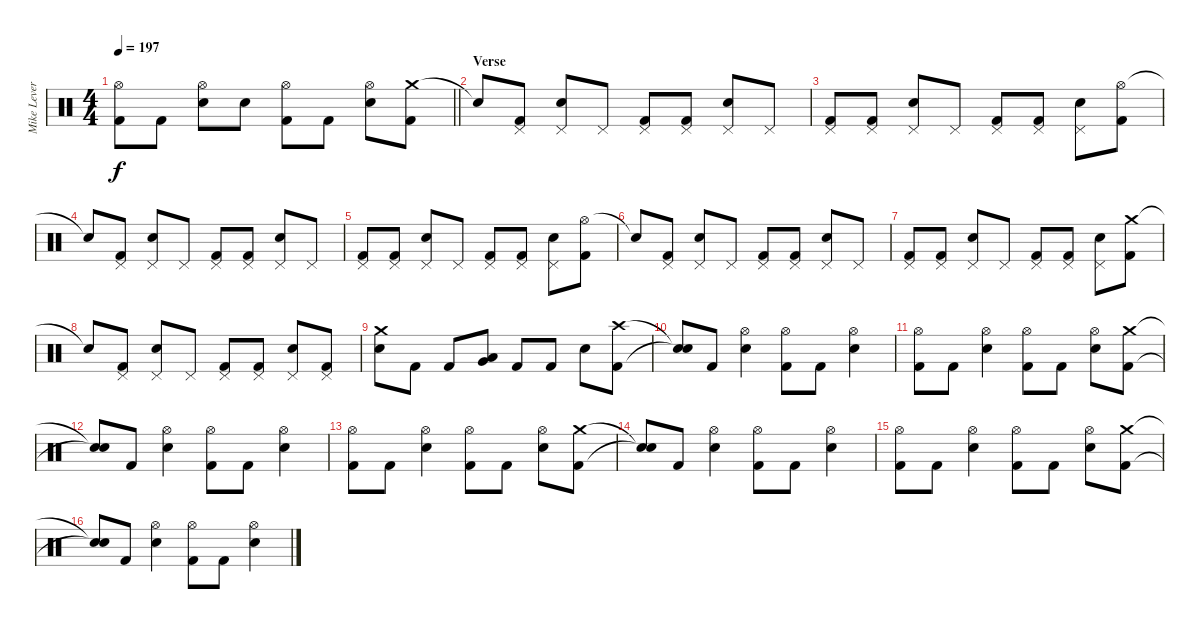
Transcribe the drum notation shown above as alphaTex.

\track ("Mike Leverence - Drums" "Mike Lever") {instrument percussion}
\staff {score}
\articulation defaults
\ts (4 4)
\tempo 197
\clef neutral
\barLineRight lightlight
\ks c
("Hi-Hat (open)" "Kick (hit) 2").8{dy f} "Kick (hit) 2".8 ("Hi-Hat (open)" "Electric Snare (hit)").8 "Electric Snare (hit)".8 ("Hi-Hat (open)" "Kick (hit) 2").8 "Kick (hit) 2".8 ("Hi-Hat (open)" "Electric Snare (hit)").8 ("Crash medium (hit)" "Kick (hit) 2").8 |
\section ("" "Verse")
"Snare (hit)"{t}.8 ("Pedal Hi-Hat (hit)" "Kick (hit) 2").8 ("Pedal Hi-Hat (hit)" "Electric Snare (hit)").8 "Pedal Hi-Hat (hit)".8 ("Pedal Hi-Hat (hit)" "Kick (hit) 2").8 ("Pedal Hi-Hat (hit)" "Kick (hit) 2").8 ("Pedal Hi-Hat (hit)" "Electric Snare (hit)").8 "Pedal Hi-Hat (hit)".8 |
("Pedal Hi-Hat (hit)" "Kick (hit) 2").8 ("Pedal Hi-Hat (hit)" "Kick (hit) 2").8 ("Pedal Hi-Hat (hit)" "Electric Snare (hit)").8 "Pedal Hi-Hat (hit)".8 ("Pedal Hi-Hat (hit)" "Kick (hit) 2").8 ("Pedal Hi-Hat (hit)" "Kick (hit) 2").8 ("Pedal Hi-Hat (hit)" "Electric Snare (hit)").8 ("Hi-Hat (open)" "Kick (hit) 2").8 |
"Snare (hit)"{t}.8 ("Pedal Hi-Hat (hit)" "Kick (hit) 2").8 ("Pedal Hi-Hat (hit)" "Electric Snare (hit)").8 "Pedal Hi-Hat (hit)".8 ("Pedal Hi-Hat (hit)" "Kick (hit) 2").8 ("Pedal Hi-Hat (hit)" "Kick (hit) 2").8 ("Pedal Hi-Hat (hit)" "Electric Snare (hit)").8 "Pedal Hi-Hat (hit)".8 |
("Pedal Hi-Hat (hit)" "Kick (hit) 2").8 ("Pedal Hi-Hat (hit)" "Kick (hit) 2").8 ("Pedal Hi-Hat (hit)" "Electric Snare (hit)").8 "Pedal Hi-Hat (hit)".8 ("Pedal Hi-Hat (hit)" "Kick (hit) 2").8 ("Pedal Hi-Hat (hit)" "Kick (hit) 2").8 ("Pedal Hi-Hat (hit)" "Electric Snare (hit)").8 ("Hi-Hat (open)" "Kick (hit) 2").8 |
"Snare (hit)"{t}.8 ("Pedal Hi-Hat (hit)" "Kick (hit) 2").8 ("Pedal Hi-Hat (hit)" "Electric Snare (hit)").8 "Pedal Hi-Hat (hit)".8 ("Pedal Hi-Hat (hit)" "Kick (hit) 2").8 ("Pedal Hi-Hat (hit)" "Kick (hit) 2").8 ("Pedal Hi-Hat (hit)" "Electric Snare (hit)").8 "Pedal Hi-Hat (hit)".8 |
("Pedal Hi-Hat (hit)" "Kick (hit) 2").8 ("Pedal Hi-Hat (hit)" "Kick (hit) 2").8 ("Pedal Hi-Hat (hit)" "Electric Snare (hit)").8 "Pedal Hi-Hat (hit)".8 ("Pedal Hi-Hat (hit)" "Kick (hit) 2").8 ("Pedal Hi-Hat (hit)" "Kick (hit) 2").8 ("Pedal Hi-Hat (hit)" "Electric Snare (hit)").8 ("Crash medium (hit)" "Kick (hit) 2").8 |
"Snare (hit)"{t}.8 ("Pedal Hi-Hat (hit)" "Kick (hit) 2").8 ("Pedal Hi-Hat (hit)" "Electric Snare (hit)").8 "Pedal Hi-Hat (hit)".8 ("Pedal Hi-Hat (hit)" "Kick (hit) 2").8 ("Pedal Hi-Hat (hit)" "Kick (hit) 2").8 ("Pedal Hi-Hat (hit)" "Electric Snare (hit)").8 ("Pedal Hi-Hat (hit)" "Kick (hit) 2").8 |
("Crash medium (hit)" "Electric Snare (hit)").8 "Kick (hit) 2".8 "Kick (hit) 2".8 ("Low Tom (hit)" "Very Low Tom (hit)").8 "Kick (hit) 2".8 "Kick (hit) 2".8 "Electric Snare (hit)".8 ("Crash high (hit)" "Kick (hit) 2").8 |
("Snare (hit)"{t} "Snare (hit)"{t}).8 "Kick (hit) 2".8 ("Hi-Hat (open)" "Electric Snare (hit)").4 ("Hi-Hat (open)" "Kick (hit) 2").8 "Kick (hit) 2".8 ("Hi-Hat (open)" "Electric Snare (hit)").4 |
("Hi-Hat (open)" "Kick (hit) 2").8 "Kick (hit) 2".8 ("Hi-Hat (open)" "Electric Snare (hit)").4 ("Hi-Hat (open)" "Kick (hit) 2").8 "Kick (hit) 2".8 ("Hi-Hat (open)" "Electric Snare (hit)").8 ("Crash medium (hit)" "Kick (hit) 2").8 |
("Snare (hit)"{t} "Snare (hit)"{t}).8 "Kick (hit) 2".8 ("Hi-Hat (open)" "Electric Snare (hit)").4 ("Hi-Hat (open)" "Kick (hit) 2").8 "Kick (hit) 2".8 ("Hi-Hat (open)" "Electric Snare (hit)").4 |
("Hi-Hat (open)" "Kick (hit) 2").8 "Kick (hit) 2".8 ("Hi-Hat (open)" "Electric Snare (hit)").4 ("Hi-Hat (open)" "Kick (hit) 2").8 "Kick (hit) 2".8 ("Hi-Hat (open)" "Electric Snare (hit)").8 ("Crash medium (hit)" "Kick (hit) 2").8 |
("Snare (hit)"{t} "Snare (hit)"{t}).8 "Kick (hit) 2".8 ("Hi-Hat (open)" "Electric Snare (hit)").4 ("Hi-Hat (open)" "Kick (hit) 2").8 "Kick (hit) 2".8 ("Hi-Hat (open)" "Electric Snare (hit)").4 |
("Hi-Hat (open)" "Kick (hit) 2").8 "Kick (hit) 2".8 ("Hi-Hat (open)" "Electric Snare (hit)").4 ("Hi-Hat (open)" "Kick (hit) 2").8 "Kick (hit) 2".8 ("Hi-Hat (open)" "Electric Snare (hit)").8 ("Crash medium (hit)" "Kick (hit) 2").8 |
("Snare (hit)"{t} "Snare (hit)"{t}).8 "Kick (hit) 2".8 ("Hi-Hat (open)" "Electric Snare (hit)").4 ("Hi-Hat (open)" "Kick (hit) 2").8 "Kick (hit) 2".8 ("Hi-Hat (open)" "Electric Snare (hit)").4
